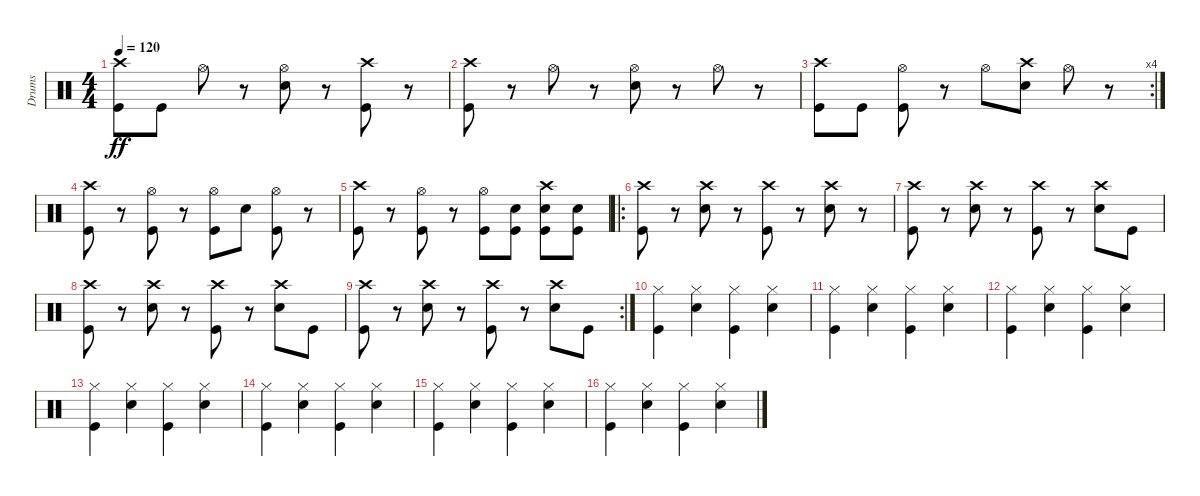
\track ("Drums" "Drums") {instrument percussion}
\staff {score}
\articulation defaults
\ts (4 4)
\tempo 120
\clef neutral
\ks c
("Crash high (hit)" "Kick (hit)").8{dy ff} "Kick (hit)".8 "Hi-Hat (open)".8 r.8 ("Hi-Hat (open)" "Snare (hit) 2").8 r.8 ("Crash high (hit)" "Kick (hit)").8 r.8 |
("Crash high (hit)" "Kick (hit)").8 r.8 "Hi-Hat (open)".8 r.8 ("Hi-Hat (open)" "Snare (hit) 2").8 r.8 "Hi-Hat (open)".8 r.8 |
\rc 4
("Crash high (hit)" "Kick (hit)").8 "Kick (hit)".8 ("Hi-Hat (open)" "Kick (hit)").8 r.8 "Hi-Hat (open)".8 ("Crash high (hit)" "Snare (hit) 2").8 "Hi-Hat (open)".8 r.8 |
("Crash high (hit)" "Kick (hit)").8 r.8 ("Hi-Hat (open)" "Kick (hit)").8 r.8 ("Hi-Hat (open)" "Kick (hit)").8 "Snare (hit) 2".8 ("Hi-Hat (open)" "Kick (hit)").8 r.8 |
("Crash high (hit)" "Kick (hit)").8 r.8 ("Hi-Hat (open)" "Kick (hit)").8 r.8 ("Hi-Hat (open)" "Kick (hit)").8 ("Snare (hit) 2" "Kick (hit)").8 ("Crash high (hit)" "Snare (hit) 2" "Kick (hit)").8 ("Snare (hit) 2" "Kick (hit)").8 |
\ro
("Crash high (hit)" "Kick (hit)").8 r.8 ("Crash high (hit)" "Snare (hit) 2").8 r.8 ("Crash high (hit)" "Kick (hit)").8 r.8 ("Crash high (hit)" "Snare (hit) 2").8 r.8 |
("Crash high (hit)" "Kick (hit)").8 r.8 ("Crash high (hit)" "Snare (hit) 2").8 r.8 ("Crash high (hit)" "Kick (hit)").8 r.8 ("Crash high (hit)" "Snare (hit) 2").8 "Kick (hit)".8 |
("Crash high (hit)" "Kick (hit)").8 r.8 ("Crash high (hit)" "Snare (hit) 2").8 r.8 ("Crash high (hit)" "Kick (hit)").8 r.8 ("Crash high (hit)" "Snare (hit) 2").8 "Kick (hit)".8 |
\rc 2
("Crash high (hit)" "Kick (hit)").8 r.8 ("Crash high (hit)" "Snare (hit) 2").8 r.8 ("Crash high (hit)" "Kick (hit)").8 r.8 ("Crash high (hit)" "Snare (hit) 2").8 "Kick (hit)".8 |
("Hi-Hat (closed)" "Kick (hit)").4 ("Hi-Hat (closed)" "Snare (hit) 2").4 ("Hi-Hat (closed)" "Kick (hit)").4 ("Hi-Hat (closed)" "Snare (hit) 2").4 |
("Hi-Hat (closed)" "Kick (hit)").4 ("Hi-Hat (closed)" "Snare (hit) 2").4 ("Hi-Hat (closed)" "Kick (hit)").4 ("Hi-Hat (closed)" "Snare (hit) 2").4 |
("Hi-Hat (closed)" "Kick (hit)").4 ("Hi-Hat (closed)" "Snare (hit) 2").4 ("Hi-Hat (closed)" "Kick (hit)").4 ("Hi-Hat (closed)" "Snare (hit) 2").4 |
("Hi-Hat (closed)" "Kick (hit)").4 ("Hi-Hat (closed)" "Snare (hit) 2").4 ("Hi-Hat (closed)" "Kick (hit)").4 ("Hi-Hat (closed)" "Snare (hit) 2").4 |
("Hi-Hat (closed)" "Kick (hit)").4 ("Hi-Hat (closed)" "Snare (hit) 2").4 ("Hi-Hat (closed)" "Kick (hit)").4 ("Hi-Hat (closed)" "Snare (hit) 2").4 |
("Hi-Hat (closed)" "Kick (hit)").4 ("Hi-Hat (closed)" "Snare (hit) 2").4 ("Hi-Hat (closed)" "Kick (hit)").4 ("Hi-Hat (closed)" "Snare (hit) 2").4 |
("Hi-Hat (closed)" "Kick (hit)").4 ("Hi-Hat (closed)" "Snare (hit) 2").4 ("Hi-Hat (closed)" "Kick (hit)").4 ("Hi-Hat (closed)" "Snare (hit) 2").4
